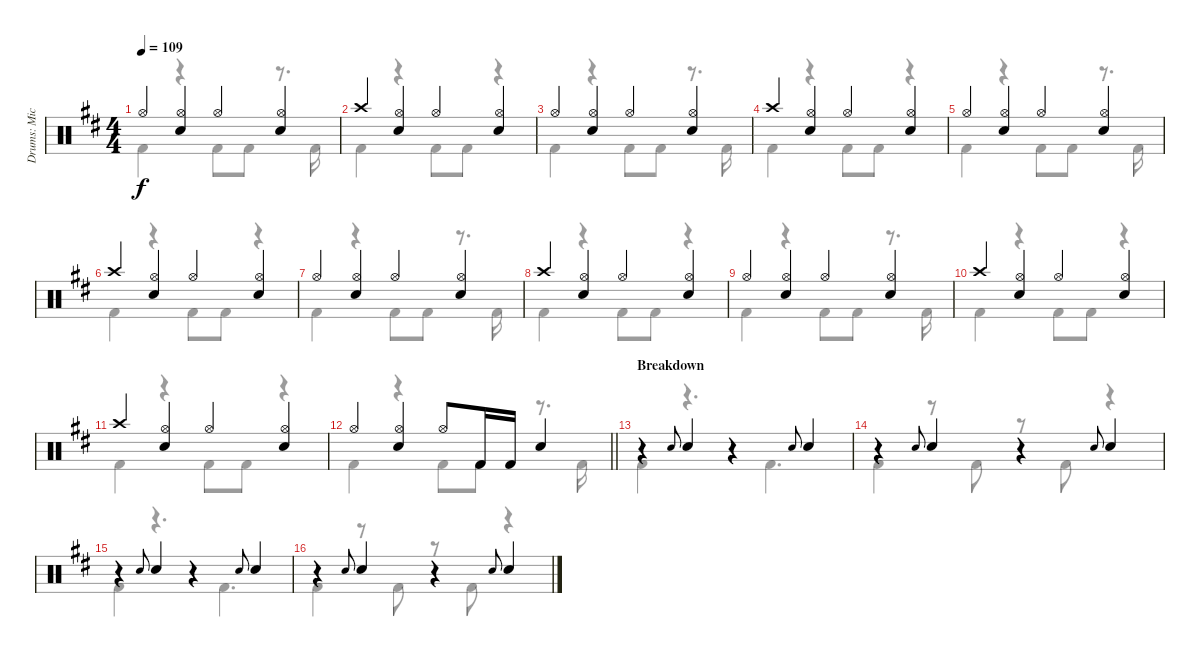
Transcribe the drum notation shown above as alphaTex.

\track ("Drums: Mick" "Drums: Mic") {instrument percussion}
\staff {score}
\articulation defaults
\voice
\ts (4 4)
\tempo 109
\clef neutral
\ks d "Hi-Hat (open)".4{dy f}
("Hi-Hat (open)" "Snare (hit) 2").4 "Hi-Hat (open)".4 ("Hi-Hat (open)" "Snare (hit) 2").4 |
"Crash high (hit)".4 ("Hi-Hat (open)" "Snare (hit) 2").4 "Hi-Hat (open)".4 ("Hi-Hat (open)" "Snare (hit) 2").4 |
"Hi-Hat (open)".4 ("Hi-Hat (open)" "Snare (hit) 2").4 "Hi-Hat (open)".4 ("Hi-Hat (open)" "Snare (hit) 2").4 |
"Crash high (hit)".4 ("Hi-Hat (open)" "Snare (hit) 2").4 "Hi-Hat (open)".4 ("Hi-Hat (open)" "Snare (hit) 2").4 |
"Hi-Hat (open)".4 ("Hi-Hat (open)" "Snare (hit) 2").4 "Hi-Hat (open)".4 ("Hi-Hat (open)" "Snare (hit) 2").4 |
"Crash high (hit)".4 ("Hi-Hat (open)" "Snare (hit) 2").4 "Hi-Hat (open)".4 ("Hi-Hat (open)" "Snare (hit) 2").4 |
"Hi-Hat (open)".4 ("Hi-Hat (open)" "Snare (hit) 2").4 "Hi-Hat (open)".4 ("Hi-Hat (open)" "Snare (hit) 2").4 |
"Crash high (hit)".4 ("Hi-Hat (open)" "Snare (hit) 2").4 "Hi-Hat (open)".4 ("Hi-Hat (open)" "Snare (hit) 2").4 |
"Hi-Hat (open)".4 ("Hi-Hat (open)" "Snare (hit) 2").4 "Hi-Hat (open)".4 ("Hi-Hat (open)" "Snare (hit) 2").4 |
"Crash high (hit)".4 ("Hi-Hat (open)" "Snare (hit) 2").4 "Hi-Hat (open)".4 ("Hi-Hat (open)" "Snare (hit) 2").4 |
"Crash high (hit)".4 ("Hi-Hat (open)" "Snare (hit) 2").4 "Hi-Hat (open)".4 ("Hi-Hat (open)" "Snare (hit) 2").4 |
\barLineRight lightlight "Hi-Hat (open)".4
("Hi-Hat (open)" "Snare (hit) 2").4 "Hi-Hat (open)".8 "Kick (hit) 2".16 "Kick (hit) 2".16 "Snare (hit) 2".4 |
\section ("" "Breakdown")
r.4 "Electric Snare (hit)".8{gr onbeat} "Snare (hit) 2".4 r.4 "Electric Snare (hit)".8{gr onbeat} "Snare (hit) 2".4 |
r.4 "Electric Snare (hit)".8{gr onbeat} "Snare (hit) 2".4 r.4 "Electric Snare (hit)".8{gr onbeat} "Snare (hit) 2".4 |
r.4 "Electric Snare (hit)".8{gr onbeat} "Snare (hit) 2".4 r.4 "Electric Snare (hit)".8{gr onbeat} "Snare (hit) 2".4 |
r.4 "Electric Snare (hit)".8{gr onbeat} "Snare (hit) 2".4 r.4 "Electric Snare (hit)".8{gr onbeat} "Snare (hit) 2".4
\voice
\clef neutral
\ottava regular
\simile none
\ks d "Kick (hit) 2".4{dy f}
r.4 "Kick (hit) 2".8 "Kick (hit) 2".8 r.8{d} "Kick (hit) 2".16 |
"Kick (hit) 2".4 r.4 "Kick (hit) 2".8 "Kick (hit) 2".8 r.4 |
"Kick (hit) 2".4 r.4 "Kick (hit) 2".8 "Kick (hit) 2".8 r.8{d} "Kick (hit) 2".16 |
"Kick (hit) 2".4 r.4 "Kick (hit) 2".8 "Kick (hit) 2".8 r.4 |
"Kick (hit) 2".4 r.4 "Kick (hit) 2".8 "Kick (hit) 2".8 r.8{d} "Kick (hit) 2".16 |
"Kick (hit) 2".4 r.4 "Kick (hit) 2".8 "Kick (hit) 2".8 r.4 |
"Kick (hit) 2".4 r.4 "Kick (hit) 2".8 "Kick (hit) 2".8 r.8{d} "Kick (hit) 2".16 |
"Kick (hit) 2".4 r.4 "Kick (hit) 2".8 "Kick (hit) 2".8 r.4 |
"Kick (hit) 2".4 r.4 "Kick (hit) 2".8 "Kick (hit) 2".8 r.8{d} "Kick (hit) 2".16 |
"Kick (hit) 2".4 r.4 "Kick (hit) 2".8 "Kick (hit) 2".8 r.4 |
"Kick (hit) 2".4 r.4 "Kick (hit) 2".8 "Kick (hit) 2".8 r.4 |
\barLineRight lightlight "Kick (hit) 2".4
r.4 "Kick (hit) 2".8 "Kick (hit) 2".8 r.8{d} "Kick (hit) 2".16 |
"Kick (hit) 2".4 r.4{d} "Kick (hit) 2".4{d} |
"Kick (hit) 2".4 r.8 "Kick (hit) 2".8 r.8 "Kick (hit) 2".8 r.4 |
"Kick (hit) 2".4 r.4{d} "Kick (hit) 2".4{d} |
"Kick (hit) 2".4 r.8 "Kick (hit) 2".8 r.8 "Kick (hit) 2".8 r.4
